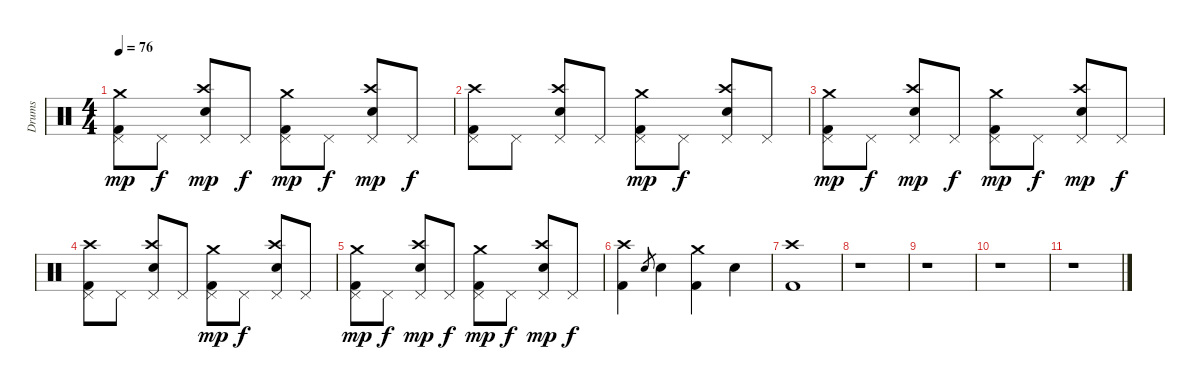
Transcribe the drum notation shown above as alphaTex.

\track ("Drums" "Drums") {instrument percussion}
\staff {score}
\articulation defaults
\ts (4 4)
\tempo 76
\clef neutral
\ks c
("Crash medium (hit)" "Pedal Hi-Hat (hit)" "Kick (hit) 2").8{dy mp} "Pedal Hi-Hat (hit)".8{dy f} ("Crash high (hit)" "Pedal Hi-Hat (hit)" "Snare (hit) 2").8{dy mp} "Pedal Hi-Hat (hit)".8{dy f} ("Crash medium (hit)" "Pedal Hi-Hat (hit)" "Kick (hit) 2").8{dy mp} "Pedal Hi-Hat (hit)".8{dy f} ("Crash high (hit)" "Pedal Hi-Hat (hit)" "Snare (hit) 2").8{dy mp} "Pedal Hi-Hat (hit)".8{dy f} |
("Crash high (hit)" "Pedal Hi-Hat (hit)" "Kick (hit) 2").8 "Pedal Hi-Hat (hit)".8 ("Crash high (hit)" "Pedal Hi-Hat (hit)" "Snare (hit) 2").8 "Pedal Hi-Hat (hit)".8 ("Crash medium (hit)" "Pedal Hi-Hat (hit)" "Kick (hit) 2").8{dy mp} "Pedal Hi-Hat (hit)".8{dy f} ("Crash high (hit)" "Pedal Hi-Hat (hit)" "Snare (hit) 2").8 "Pedal Hi-Hat (hit)".8 |
("Crash medium (hit)" "Pedal Hi-Hat (hit)" "Kick (hit) 2").8{dy mp} "Pedal Hi-Hat (hit)".8{dy f} ("Crash high (hit)" "Pedal Hi-Hat (hit)" "Snare (hit) 2").8{dy mp} "Pedal Hi-Hat (hit)".8{dy f} ("Crash medium (hit)" "Pedal Hi-Hat (hit)" "Kick (hit) 2").8{dy mp} "Pedal Hi-Hat (hit)".8{dy f} ("Crash high (hit)" "Pedal Hi-Hat (hit)" "Snare (hit) 2").8{dy mp} "Pedal Hi-Hat (hit)".8{dy f} |
("Crash high (hit)" "Pedal Hi-Hat (hit)" "Kick (hit) 2").8 "Pedal Hi-Hat (hit)".8 ("Crash high (hit)" "Pedal Hi-Hat (hit)" "Snare (hit) 2").8 "Pedal Hi-Hat (hit)".8 ("Crash medium (hit)" "Pedal Hi-Hat (hit)" "Kick (hit) 2").8{dy mp} "Pedal Hi-Hat (hit)".8{dy f} ("Crash high (hit)" "Pedal Hi-Hat (hit)" "Snare (hit) 2").8 "Pedal Hi-Hat (hit)".8 |
("Crash medium (hit)" "Pedal Hi-Hat (hit)" "Kick (hit) 2").8{dy mp} "Pedal Hi-Hat (hit)".8{dy f} ("Crash high (hit)" "Pedal Hi-Hat (hit)" "Snare (hit) 2").8{dy mp} "Pedal Hi-Hat (hit)".8{dy f} ("Crash medium (hit)" "Pedal Hi-Hat (hit)" "Kick (hit) 2").8{dy mp} "Pedal Hi-Hat (hit)".8{dy f} ("Crash high (hit)" "Pedal Hi-Hat (hit)" "Snare (hit) 2").8{dy mp} "Pedal Hi-Hat (hit)".8{dy f} |
("Crash high (hit)" "Kick (hit) 2").4 "Snare (hit) 2".8{gr} "Snare (hit) 2".4 ("Crash medium (hit)" "Kick (hit) 2").4 "Snare (hit) 2".4 |
("Crash high (hit)" "Kick (hit) 2").1 |
r.1 |
r.1 |
r.1 |
r.1
